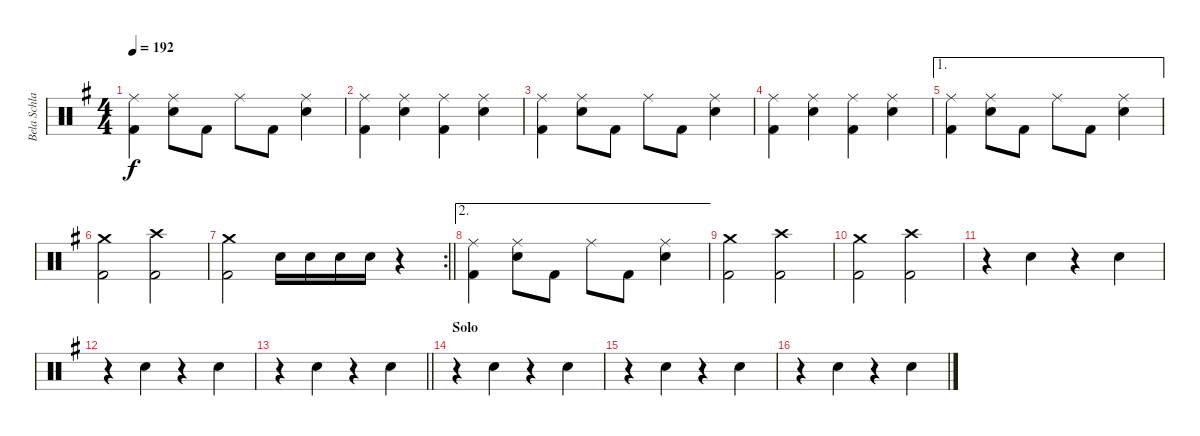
\track ("Bela Schlagzeug" "Bela Schla") {instrument percussion}
\staff {score}
\articulation defaults
\ts (4 4)
\tempo 192
\clef neutral
\ks g
("Ride (middle)" "Kick (hit) 2").4{dy f} ("Ride (middle)" "Electric Snare (hit)").8 "Kick (hit) 2".8 "Ride (middle)".8 "Kick (hit) 2".8 ("Ride (middle)" "Electric Snare (hit)").4 |
("Ride (middle)" "Kick (hit) 2").4 ("Ride (middle)" "Electric Snare (hit)").4 ("Ride (middle)" "Kick (hit) 2").4 ("Ride (middle)" "Electric Snare (hit)").4 |
("Ride (middle)" "Kick (hit) 2").4 ("Ride (middle)" "Electric Snare (hit)").8 "Kick (hit) 2".8 "Ride (middle)".8 "Kick (hit) 2".8 ("Ride (middle)" "Electric Snare (hit)").4 |
("Ride (middle)" "Kick (hit) 2").4 ("Ride (middle)" "Electric Snare (hit)").4 ("Ride (middle)" "Kick (hit) 2").4 ("Ride (middle)" "Electric Snare (hit)").4 |
\ae 1
("Ride (middle)" "Kick (hit) 2").4 ("Ride (middle)" "Electric Snare (hit)").8 "Kick (hit) 2".8 "Ride (middle)".8 "Kick (hit) 2".8 ("Ride (middle)" "Electric Snare (hit)").4 |
("Crash medium (hit)" "Kick (hit) 2").2 ("Crash high (hit)" "Kick (hit) 2").2 |
\rc 2
\barLineRight lightlight
("Crash medium (hit)" "Kick (hit) 2").2 "Electric Snare (hit)".16 "Electric Snare (hit)".16 "Electric Snare (hit)".16 "Electric Snare (hit)".16 r.4 |
\ae 2
("Ride (middle)" "Kick (hit) 2").4 ("Ride (middle)" "Electric Snare (hit)").8 "Kick (hit) 2".8 "Ride (middle)".8 "Kick (hit) 2".8 ("Ride (middle)" "Electric Snare (hit)").4 |
("Crash medium (hit)" "Kick (hit) 2").2 ("Crash high (hit)" "Kick (hit) 2").2 |
("Crash medium (hit)" "Kick (hit) 2").2 ("Crash high (hit)" "Kick (hit) 2").2 |
r.4 "Hand Clap (hit)".4 r.4 "Hand Clap (hit)".4 |
r.4 "Hand Clap (hit)".4 r.4 "Hand Clap (hit)".4 |
\barLineRight lightlight
r.4 "Hand Clap (hit)".4 r.4 "Hand Clap (hit)".4 |
\section ("" "Solo")
r.4 "Hand Clap (hit)".4 r.4 "Hand Clap (hit)".4 |
r.4 "Hand Clap (hit)".4 r.4 "Hand Clap (hit)".4 |
r.4 "Hand Clap (hit)".4 r.4 "Hand Clap (hit)".4
